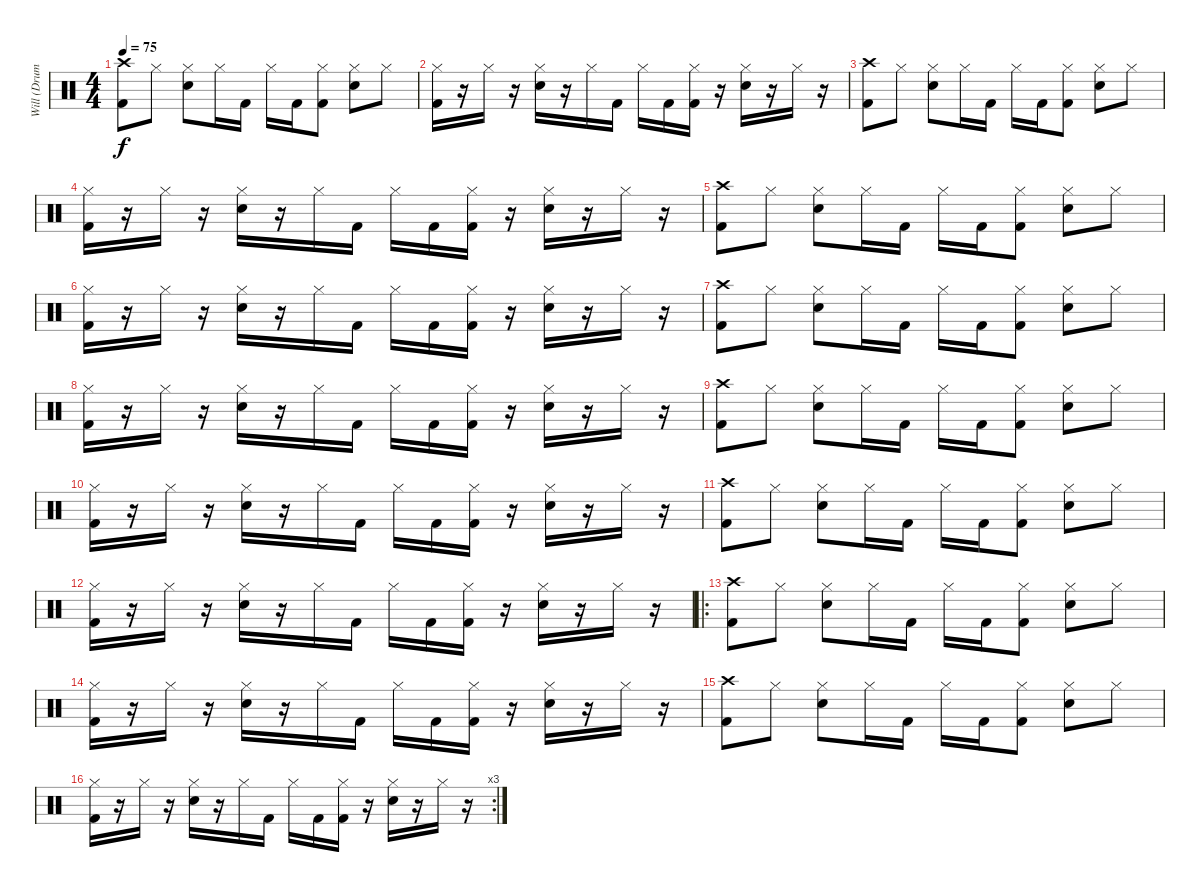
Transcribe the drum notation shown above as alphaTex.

\track ("Will (Drums)" "Will (Drum") {instrument percussion}
\staff {score}
\articulation defaults
\ts (4 4)
\tempo 75
\clef neutral
\ks c
("Crash high (hit)" "Kick (hit) 2").8{dy f} "Hi-Hat (closed)".8 ("Hi-Hat (closed)" "Snare (hit) 2").8 "Hi-Hat (closed)".16 "Kick (hit) 2".16 "Hi-Hat (closed)".16 "Kick (hit) 2".16 ("Hi-Hat (closed)" "Kick (hit) 2").8 ("Hi-Hat (closed)" "Snare (hit) 2").8 "Hi-Hat (closed)".8 |
("Hi-Hat (closed)" "Kick (hit) 2").16 r.16 "Hi-Hat (closed)".16 r.16 ("Hi-Hat (closed)" "Snare (hit) 2").16 r.16 "Hi-Hat (closed)".16 "Kick (hit) 2".16 "Hi-Hat (closed)".16 "Kick (hit) 2".16 ("Hi-Hat (closed)" "Kick (hit) 2").16 r.16 ("Hi-Hat (closed)" "Snare (hit) 2").16 r.16 "Hi-Hat (closed)".16 r.16 |
("Crash high (hit)" "Kick (hit) 2").8 "Hi-Hat (closed)".8 ("Hi-Hat (closed)" "Snare (hit) 2").8 "Hi-Hat (closed)".16 "Kick (hit) 2".16 "Hi-Hat (closed)".16 "Kick (hit) 2".16 ("Hi-Hat (closed)" "Kick (hit) 2").8 ("Hi-Hat (closed)" "Snare (hit) 2").8 "Hi-Hat (closed)".8 |
("Hi-Hat (closed)" "Kick (hit) 2").16 r.16 "Hi-Hat (closed)".16 r.16 ("Hi-Hat (closed)" "Snare (hit) 2").16 r.16 "Hi-Hat (closed)".16 "Kick (hit) 2".16 "Hi-Hat (closed)".16 "Kick (hit) 2".16 ("Hi-Hat (closed)" "Kick (hit) 2").16 r.16 ("Hi-Hat (closed)" "Snare (hit) 2").16 r.16 "Hi-Hat (closed)".16 r.16 |
("Crash high (hit)" "Kick (hit) 2").8 "Hi-Hat (closed)".8 ("Hi-Hat (closed)" "Snare (hit) 2").8 "Hi-Hat (closed)".16 "Kick (hit) 2".16 "Hi-Hat (closed)".16 "Kick (hit) 2".16 ("Hi-Hat (closed)" "Kick (hit) 2").8 ("Hi-Hat (closed)" "Snare (hit) 2").8 "Hi-Hat (closed)".8 |
("Hi-Hat (closed)" "Kick (hit) 2").16 r.16 "Hi-Hat (closed)".16 r.16 ("Hi-Hat (closed)" "Snare (hit) 2").16 r.16 "Hi-Hat (closed)".16 "Kick (hit) 2".16 "Hi-Hat (closed)".16 "Kick (hit) 2".16 ("Hi-Hat (closed)" "Kick (hit) 2").16 r.16 ("Hi-Hat (closed)" "Snare (hit) 2").16 r.16 "Hi-Hat (closed)".16 r.16 |
("Crash high (hit)" "Kick (hit) 2").8 "Hi-Hat (closed)".8 ("Hi-Hat (closed)" "Snare (hit) 2").8 "Hi-Hat (closed)".16 "Kick (hit) 2".16 "Hi-Hat (closed)".16 "Kick (hit) 2".16 ("Hi-Hat (closed)" "Kick (hit) 2").8 ("Hi-Hat (closed)" "Snare (hit) 2").8 "Hi-Hat (closed)".8 |
("Hi-Hat (closed)" "Kick (hit) 2").16 r.16 "Hi-Hat (closed)".16 r.16 ("Hi-Hat (closed)" "Snare (hit) 2").16 r.16 "Hi-Hat (closed)".16 "Kick (hit) 2".16 "Hi-Hat (closed)".16 "Kick (hit) 2".16 ("Hi-Hat (closed)" "Kick (hit) 2").16 r.16 ("Hi-Hat (closed)" "Snare (hit) 2").16 r.16 "Hi-Hat (closed)".16 r.16 |
("Crash high (hit)" "Kick (hit) 2").8 "Hi-Hat (closed)".8 ("Hi-Hat (closed)" "Snare (hit) 2").8 "Hi-Hat (closed)".16 "Kick (hit) 2".16 "Hi-Hat (closed)".16 "Kick (hit) 2".16 ("Hi-Hat (closed)" "Kick (hit) 2").8 ("Hi-Hat (closed)" "Snare (hit) 2").8 "Hi-Hat (closed)".8 |
("Hi-Hat (closed)" "Kick (hit) 2").16 r.16 "Hi-Hat (closed)".16 r.16 ("Hi-Hat (closed)" "Snare (hit) 2").16 r.16 "Hi-Hat (closed)".16 "Kick (hit) 2".16 "Hi-Hat (closed)".16 "Kick (hit) 2".16 ("Hi-Hat (closed)" "Kick (hit) 2").16 r.16 ("Hi-Hat (closed)" "Snare (hit) 2").16 r.16 "Hi-Hat (closed)".16 r.16 |
("Crash high (hit)" "Kick (hit) 2").8 "Hi-Hat (closed)".8 ("Hi-Hat (closed)" "Snare (hit) 2").8 "Hi-Hat (closed)".16 "Kick (hit) 2".16 "Hi-Hat (closed)".16 "Kick (hit) 2".16 ("Hi-Hat (closed)" "Kick (hit) 2").8 ("Hi-Hat (closed)" "Snare (hit) 2").8 "Hi-Hat (closed)".8 |
("Hi-Hat (closed)" "Kick (hit) 2").16 r.16 "Hi-Hat (closed)".16 r.16 ("Hi-Hat (closed)" "Snare (hit) 2").16 r.16 "Hi-Hat (closed)".16 "Kick (hit) 2".16 "Hi-Hat (closed)".16 "Kick (hit) 2".16 ("Hi-Hat (closed)" "Kick (hit) 2").16 r.16 ("Hi-Hat (closed)" "Snare (hit) 2").16 r.16 "Hi-Hat (closed)".16 r.16 |
\ro
("Crash high (hit)" "Kick (hit) 2").8 "Hi-Hat (closed)".8 ("Hi-Hat (closed)" "Snare (hit) 2").8 "Hi-Hat (closed)".16 "Kick (hit) 2".16 "Hi-Hat (closed)".16 "Kick (hit) 2".16 ("Hi-Hat (closed)" "Kick (hit) 2").8 ("Hi-Hat (closed)" "Snare (hit) 2").8 "Hi-Hat (closed)".8 |
("Hi-Hat (closed)" "Kick (hit) 2").16 r.16 "Hi-Hat (closed)".16 r.16 ("Hi-Hat (closed)" "Snare (hit) 2").16 r.16 "Hi-Hat (closed)".16 "Kick (hit) 2".16 "Hi-Hat (closed)".16 "Kick (hit) 2".16 ("Hi-Hat (closed)" "Kick (hit) 2").16 r.16 ("Hi-Hat (closed)" "Snare (hit) 2").16 r.16 "Hi-Hat (closed)".16 r.16 |
("Crash high (hit)" "Kick (hit) 2").8 "Hi-Hat (closed)".8 ("Hi-Hat (closed)" "Snare (hit) 2").8 "Hi-Hat (closed)".16 "Kick (hit) 2".16 "Hi-Hat (closed)".16 "Kick (hit) 2".16 ("Hi-Hat (closed)" "Kick (hit) 2").8 ("Hi-Hat (closed)" "Snare (hit) 2").8 "Hi-Hat (closed)".8 |
\rc 3
("Hi-Hat (closed)" "Kick (hit) 2").16 r.16 "Hi-Hat (closed)".16 r.16 ("Hi-Hat (closed)" "Snare (hit) 2").16 r.16 "Hi-Hat (closed)".16 "Kick (hit) 2".16 "Hi-Hat (closed)".16 "Kick (hit) 2".16 ("Hi-Hat (closed)" "Kick (hit) 2").16 r.16 ("Hi-Hat (closed)" "Snare (hit) 2").16 r.16 "Hi-Hat (closed)".16 r.16
